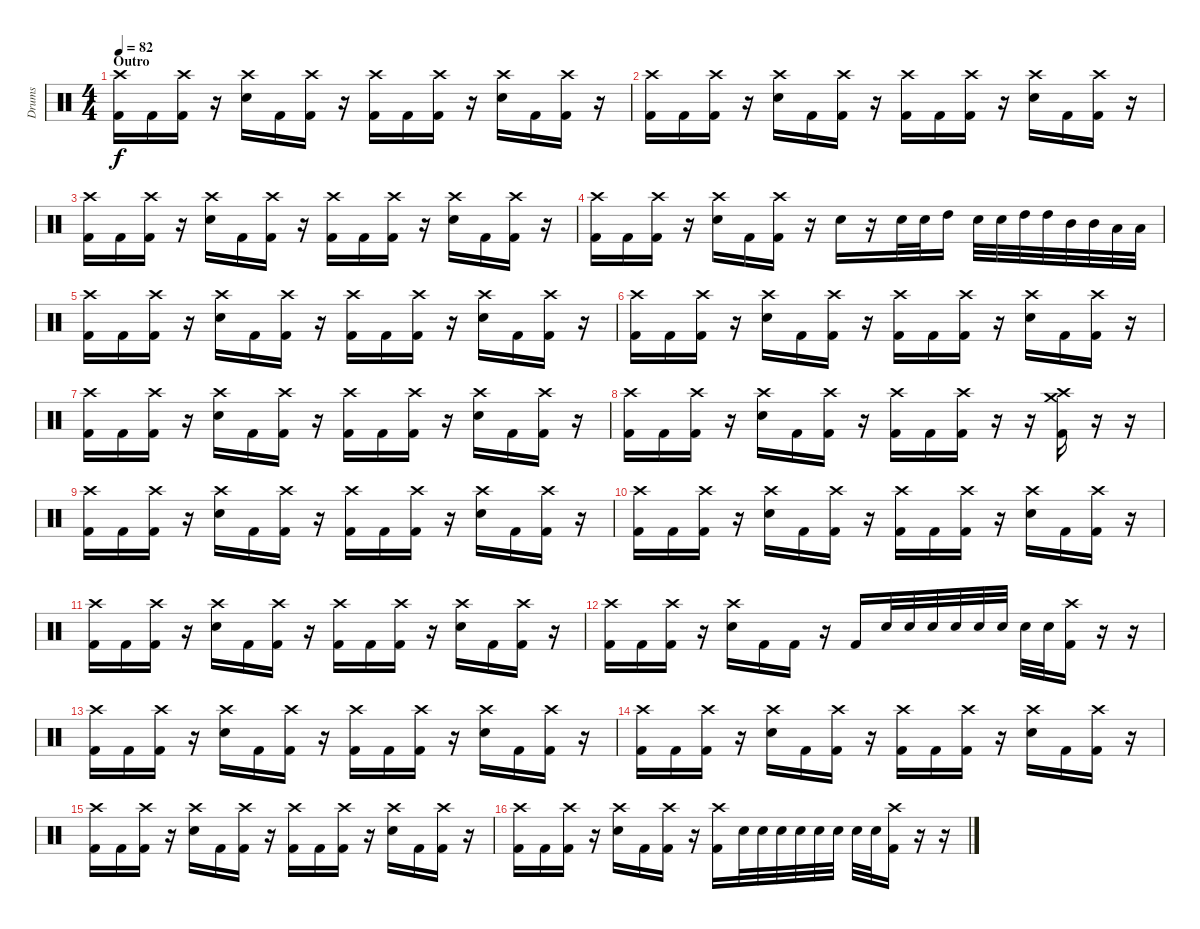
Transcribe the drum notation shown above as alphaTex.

\track ("Drums" "Drums") {instrument percussion}
\staff {score}
\articulation defaults
\ts (4 4)
\section ("" "Outro")
\tempo 82
\clef neutral
\ks c
("Crash high (hit)" "Kick (hit) 2").16{dy f} "Kick (hit) 2".16 ("Crash high (hit)" "Kick (hit) 2").16 r.16 ("Crash high (hit)" "Electric Snare (hit)").16 "Kick (hit) 2".16 ("Crash high (hit)" "Kick (hit) 2").16 r.16 ("Crash high (hit)" "Kick (hit) 2").16 "Kick (hit) 2".16 ("Crash high (hit)" "Kick (hit) 2").16 r.16 ("Crash high (hit)" "Electric Snare (hit)").16 "Kick (hit) 2".16 ("Crash high (hit)" "Kick (hit) 2").16 r.16 |
("Crash high (hit)" "Kick (hit) 2").16 "Kick (hit) 2".16 ("Crash high (hit)" "Kick (hit) 2").16 r.16 ("Crash high (hit)" "Electric Snare (hit)").16 "Kick (hit) 2".16 ("Crash high (hit)" "Kick (hit) 2").16 r.16 ("Crash high (hit)" "Kick (hit) 2").16 "Kick (hit) 2".16 ("Crash high (hit)" "Kick (hit) 2").16 r.16 ("Crash high (hit)" "Electric Snare (hit)").16 "Kick (hit) 2".16 ("Crash high (hit)" "Kick (hit) 2").16 r.16 |
("Crash high (hit)" "Kick (hit) 2").16 "Kick (hit) 2".16 ("Crash high (hit)" "Kick (hit) 2").16 r.16 ("Crash high (hit)" "Electric Snare (hit)").16 "Kick (hit) 2".16 ("Crash high (hit)" "Kick (hit) 2").16 r.16 ("Crash high (hit)" "Kick (hit) 2").16 "Kick (hit) 2".16 ("Crash high (hit)" "Kick (hit) 2").16 r.16 ("Crash high (hit)" "Electric Snare (hit)").16 "Kick (hit) 2".16 ("Crash high (hit)" "Kick (hit) 2").16 r.16 |
("Crash high (hit)" "Kick (hit) 2").16 "Kick (hit) 2".16 ("Crash high (hit)" "Kick (hit) 2").16 r.16 ("Crash high (hit)" "Electric Snare (hit)").16 "Kick (hit) 2".16 ("Crash high (hit)" "Kick (hit) 2").16 r.16 "Electric Snare (hit)".16 r.16 "Electric Snare (hit)".32 "Electric Snare (hit)".32 "High Tom (hit)".16 "Electric Snare (hit)".32 "Electric Snare (hit)".32 "High Tom (hit)".32 "High Tom (hit)".32 "Mid Tom (hit)".32 "Mid Tom (hit)".32 "Low Floor Tom (hit)".32 "Low Floor Tom (hit)".32 |
("Crash high (hit)" "Kick (hit) 2").16 "Kick (hit) 2".16 ("Crash high (hit)" "Kick (hit) 2").16 r.16 ("Crash high (hit)" "Electric Snare (hit)").16 "Kick (hit) 2".16 ("Crash high (hit)" "Kick (hit) 2").16 r.16 ("Crash high (hit)" "Kick (hit) 2").16 "Kick (hit) 2".16 ("Crash high (hit)" "Kick (hit) 2").16 r.16 ("Crash high (hit)" "Electric Snare (hit)").16 "Kick (hit) 2".16 ("Crash high (hit)" "Kick (hit) 2").16 r.16 |
("Crash high (hit)" "Kick (hit) 2").16 "Kick (hit) 2".16 ("Crash high (hit)" "Kick (hit) 2").16 r.16 ("Crash high (hit)" "Electric Snare (hit)").16 "Kick (hit) 2".16 ("Crash high (hit)" "Kick (hit) 2").16 r.16 ("Crash high (hit)" "Kick (hit) 2").16 "Kick (hit) 2".16 ("Crash high (hit)" "Kick (hit) 2").16 r.16 ("Crash high (hit)" "Electric Snare (hit)").16 "Kick (hit) 2".16 ("Crash high (hit)" "Kick (hit) 2").16 r.16 |
("Crash high (hit)" "Kick (hit) 2").16 "Kick (hit) 2".16 ("Crash high (hit)" "Kick (hit) 2").16 r.16 ("Crash high (hit)" "Electric Snare (hit)").16 "Kick (hit) 2".16 ("Crash high (hit)" "Kick (hit) 2").16 r.16 ("Crash high (hit)" "Kick (hit) 2").16 "Kick (hit) 2".16 ("Crash high (hit)" "Kick (hit) 2").16 r.16 ("Crash high (hit)" "Electric Snare (hit)").16 "Kick (hit) 2".16 ("Crash high (hit)" "Kick (hit) 2").16 r.16 |
("Crash high (hit)" "Kick (hit) 2").16 "Kick (hit) 2".16 ("Crash high (hit)" "Kick (hit) 2").16 r.16 ("Crash high (hit)" "Electric Snare (hit)").16 "Kick (hit) 2".16 ("Crash high (hit)" "Kick (hit) 2").16 r.16 ("Crash high (hit)" "Kick (hit) 2").16 "Kick (hit) 2".16 ("Crash high (hit)" "Kick (hit) 2").16 r.16 r.16 ("Crash high (hit)" "Crash medium (hit)" "Kick (hit) 2").16 r.16 r.16 |
("Crash high (hit)" "Kick (hit) 2").16 "Kick (hit) 2".16 ("Crash high (hit)" "Kick (hit) 2").16 r.16 ("Crash high (hit)" "Electric Snare (hit)").16 "Kick (hit) 2".16 ("Crash high (hit)" "Kick (hit) 2").16 r.16 ("Crash high (hit)" "Kick (hit) 2").16 "Kick (hit) 2".16 ("Crash high (hit)" "Kick (hit) 2").16 r.16 ("Crash high (hit)" "Electric Snare (hit)").16 "Kick (hit) 2".16 ("Crash high (hit)" "Kick (hit) 2").16 r.16 |
("Crash high (hit)" "Kick (hit) 2").16 "Kick (hit) 2".16 ("Crash high (hit)" "Kick (hit) 2").16 r.16 ("Crash high (hit)" "Electric Snare (hit)").16 "Kick (hit) 2".16 ("Crash high (hit)" "Kick (hit) 2").16 r.16 ("Crash high (hit)" "Kick (hit) 2").16 "Kick (hit) 2".16 ("Crash high (hit)" "Kick (hit) 2").16 r.16 ("Crash high (hit)" "Electric Snare (hit)").16 "Kick (hit) 2".16 ("Crash high (hit)" "Kick (hit) 2").16 r.16 |
("Crash high (hit)" "Kick (hit) 2").16 "Kick (hit) 2".16 ("Crash high (hit)" "Kick (hit) 2").16 r.16 ("Crash high (hit)" "Electric Snare (hit)").16 "Kick (hit) 2".16 ("Crash high (hit)" "Kick (hit) 2").16 r.16 ("Crash high (hit)" "Kick (hit) 2").16 "Kick (hit) 2".16 ("Crash high (hit)" "Kick (hit) 2").16 r.16 ("Crash high (hit)" "Electric Snare (hit)").16 "Kick (hit) 2".16 ("Crash high (hit)" "Kick (hit) 2").16 r.16 |
("Crash high (hit)" "Kick (hit) 2").16 "Kick (hit) 2".16 ("Crash high (hit)" "Kick (hit) 2").16 r.16 ("Crash high (hit)" "Electric Snare (hit)").16 "Kick (hit) 2".16 "Kick (hit) 2".16 r.16 "Kick (hit) 2".16 "Electric Snare (hit)".32 "Electric Snare (hit)".32 "Electric Snare (hit)".32 "Electric Snare (hit)".32 "Electric Snare (hit)".32 "Electric Snare (hit)".32 "Electric Snare (hit)".32 "Electric Snare (hit)".32 ("Crash high (hit)" "Kick (hit) 2").16 r.16 r.16 |
("Crash high (hit)" "Kick (hit) 2").16{volume 0} "Kick (hit) 2".16 ("Crash high (hit)" "Kick (hit) 2").16 r.16 ("Crash high (hit)" "Electric Snare (hit)").16 "Kick (hit) 2".16 ("Crash high (hit)" "Kick (hit) 2").16 r.16 ("Crash high (hit)" "Kick (hit) 2").16 "Kick (hit) 2".16 ("Crash high (hit)" "Kick (hit) 2").16 r.16 ("Crash high (hit)" "Electric Snare (hit)").16 "Kick (hit) 2".16 ("Crash high (hit)" "Kick (hit) 2").16 r.16 |
("Crash high (hit)" "Kick (hit) 2").16 "Kick (hit) 2".16 ("Crash high (hit)" "Kick (hit) 2").16 r.16 ("Crash high (hit)" "Electric Snare (hit)").16 "Kick (hit) 2".16 ("Crash high (hit)" "Kick (hit) 2").16 r.16 ("Crash high (hit)" "Kick (hit) 2").16 "Kick (hit) 2".16 ("Crash high (hit)" "Kick (hit) 2").16 r.16 ("Crash high (hit)" "Electric Snare (hit)").16 "Kick (hit) 2".16 ("Crash high (hit)" "Kick (hit) 2").16 r.16 |
("Crash high (hit)" "Kick (hit) 2").16 "Kick (hit) 2".16 ("Crash high (hit)" "Kick (hit) 2").16 r.16 ("Crash high (hit)" "Electric Snare (hit)").16 "Kick (hit) 2".16 ("Crash high (hit)" "Kick (hit) 2").16 r.16 ("Crash high (hit)" "Kick (hit) 2").16 "Kick (hit) 2".16 ("Crash high (hit)" "Kick (hit) 2").16 r.16 ("Crash high (hit)" "Electric Snare (hit)").16 "Kick (hit) 2".16 ("Crash high (hit)" "Kick (hit) 2").16 r.16 |
("Crash high (hit)" "Kick (hit) 2").16 "Kick (hit) 2".16 ("Crash high (hit)" "Kick (hit) 2").16 r.16 ("Crash high (hit)" "Electric Snare (hit)").16 "Kick (hit) 2".16 ("Crash high (hit)" "Kick (hit) 2").16 r.16 ("Crash high (hit)" "Kick (hit) 2").16 "Electric Snare (hit)".32 "Electric Snare (hit)".32 "Electric Snare (hit)".32 "Electric Snare (hit)".32 "Electric Snare (hit)".32 "Electric Snare (hit)".32 "Electric Snare (hit)".32 "Electric Snare (hit)".32 ("Crash high (hit)" "Kick (hit) 2").16 r.16 r.16
